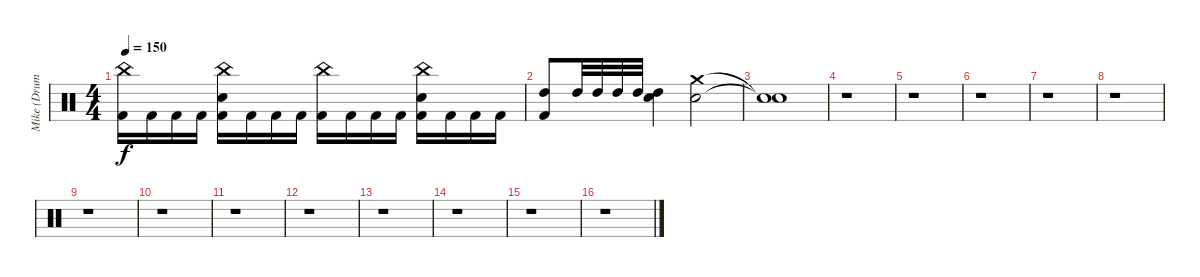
\track ("Mike (Drums)" "Mike (Drum") {instrument percussion}
\staff {score}
\articulation defaults
\ts (4 4)
\tempo 150
\clef neutral
\ks c
("China (hit)" "Kick (hit) 2").16{dy f} "Kick (hit) 2".16 "Kick (hit) 2".16 "Kick (hit) 2".16 ("China (hit)" "Snare (hit) 2" "Kick (hit) 2").16 "Kick (hit) 2".16 "Kick (hit) 2".16 "Kick (hit) 2".16 ("China (hit)" "Kick (hit) 2").16 "Kick (hit) 2".16 "Kick (hit) 2".16 "Kick (hit) 2".16 ("China (hit)" "Snare (hit) 2" "Kick (hit) 2").16 "Kick (hit) 2".16 "Kick (hit) 2".16 "Kick (hit) 2".16 |
("High Tom (hit)" "Kick (hit) 2").8 "High Tom (hit)".32 "High Tom (hit)".32 "High Tom (hit)".32 "High Tom (hit)".32 ("Snare (hit) 2" "High Tom (hit)").4 ("Crash medium (hit)" "Snare (hit) 2").2 |
("Snare (hit)"{t} "Snare (hit)"{t}).1 |
r.1 |
r.1 |
r.1 |
r.1 |
r.1 |
r.1 |
r.1 |
r.1 |
r.1 |
r.1 |
r.1 |
r.1 |
r.1
